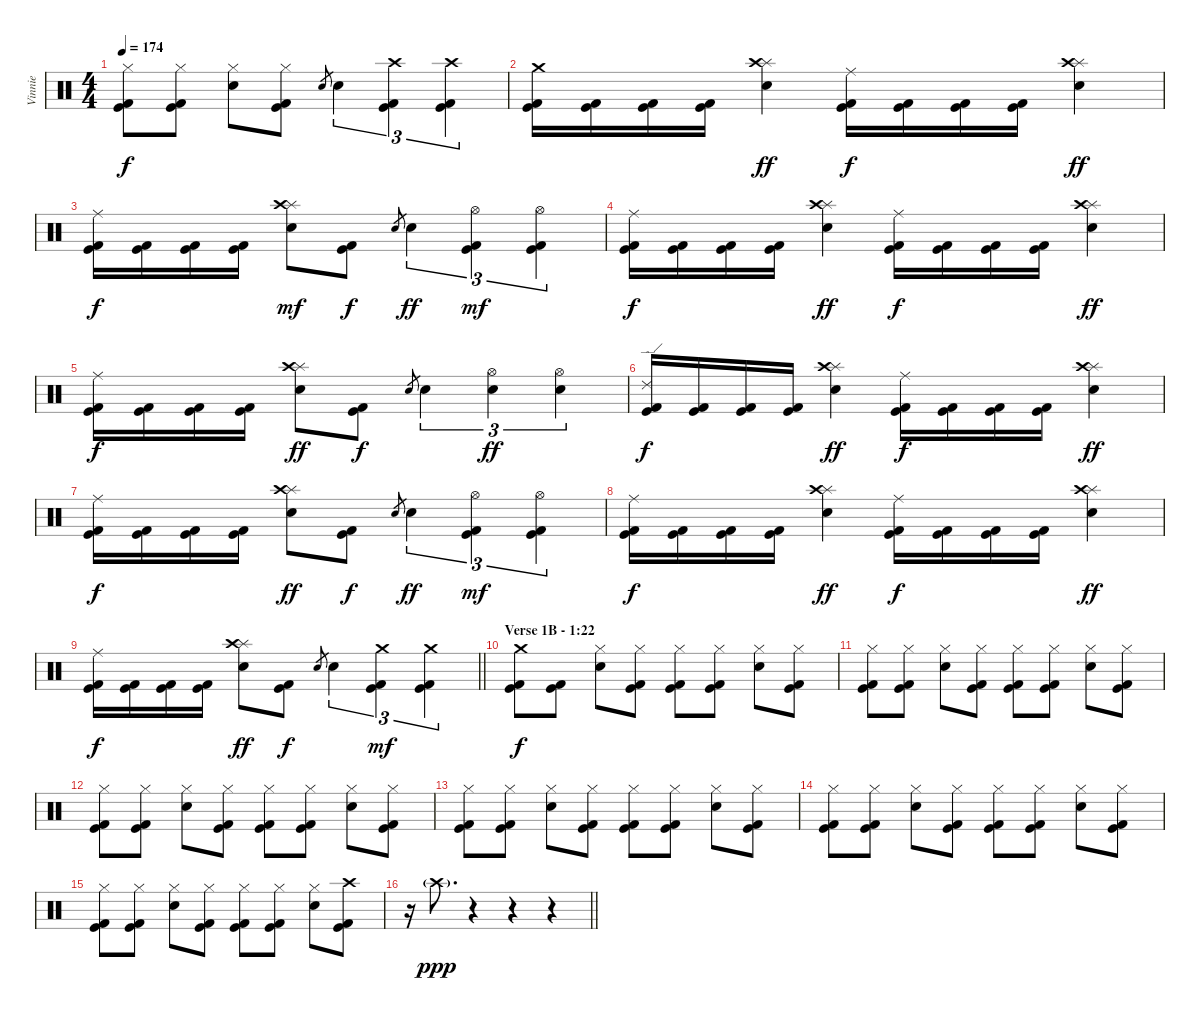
\track ("Vinnie" "Vinnie") {instrument percussion}
\staff {score}
\articulation defaults
\ts (4 4)
\tempo 174
\clef neutral
\ks c
("Hi-Hat (closed)" "Kick (hit)" "Kick (hit) 2").8{dy f} ("Hi-Hat (closed)" "Kick (hit)" "Kick (hit) 2").8 ("Hi-Hat (closed)" "Electric Snare (hit)").8 ("Hi-Hat (closed)" "Kick (hit)" "Kick (hit) 2").8 "Electric Snare (hit)".8{gr} "Electric Snare (hit)".4{tu (3 2)} ("Crash high (hit)" "Kick (hit)" "Kick (hit) 2").4{tu (3 2)} ("Crash high (hit)" "Kick (hit)" "Kick (hit) 2").4{tu (3 2)} |
("Crash medium (hit)" "Kick (hit)" "Kick (hit) 2").16 ("Kick (hit)" "Kick (hit) 2").16 ("Kick (hit)" "Kick (hit) 2").16 ("Kick (hit)" "Kick (hit) 2").16 ("Splash (hit)" "Crash high (hit)" "Electric Snare (hit)").4{dy ff} ("Ride (middle)" "Kick (hit)" "Kick (hit) 2").16{dy f} ("Kick (hit)" "Kick (hit) 2").16 ("Kick (hit)" "Kick (hit) 2").16 ("Kick (hit)" "Kick (hit) 2").16 ("Splash (hit)" "Crash high (hit)" "Electric Snare (hit)").4{dy ff} |
("Ride (middle)" "Kick (hit)" "Kick (hit) 2").16{dy f} ("Kick (hit)" "Kick (hit) 2").16 ("Kick (hit)" "Kick (hit) 2").16 ("Kick (hit)" "Kick (hit) 2").16 ("Splash (hit)" "Crash high (hit)" "Electric Snare (hit)").8{dy mf} ("Kick (hit)" "Kick (hit) 2").8{dy f} "Electric Snare (hit)".8{gr} "Electric Snare (hit)".4{tu (3 2) dy ff} ("Hi-Hat (open)" "Kick (hit)" "Kick (hit) 2").4{tu (3 2) dy mf} ("Hi-Hat (open)" "Kick (hit)" "Kick (hit) 2").4{tu (3 2)} |
("Ride (middle)" "Kick (hit)" "Kick (hit) 2").16{dy f} ("Kick (hit)" "Kick (hit) 2").16 ("Kick (hit)" "Kick (hit) 2").16 ("Kick (hit)" "Kick (hit) 2").16 ("Splash (hit)" "Crash high (hit)" "Electric Snare (hit)").4{dy ff} ("Ride (middle)" "Kick (hit)" "Kick (hit) 2").16{dy f} ("Kick (hit)" "Kick (hit) 2").16 ("Kick (hit)" "Kick (hit) 2").16 ("Kick (hit)" "Kick (hit) 2").16 ("Splash (hit)" "Crash high (hit)" "Electric Snare (hit)").4{dy ff} |
("Ride (middle)" "Kick (hit)" "Kick (hit) 2").16{dy f} ("Kick (hit)" "Kick (hit) 2").16 ("Kick (hit)" "Kick (hit) 2").16 ("Kick (hit)" "Kick (hit) 2").16 ("Splash (hit)" "Crash high (hit)" "Electric Snare (hit)").8{dy ff} ("Kick (hit)" "Kick (hit) 2").8{dy f} "Electric Snare (hit)".8{gr} "Electric Snare (hit)".4{tu (3 2)} ("Hi-Hat (open)" "Electric Snare (hit)").4{tu (3 2) dy ff} ("Hi-Hat (open)" "Electric Snare (hit)").4{tu (3 2)} |
("Ride (edge) 2" "Kick (hit)" "Kick (hit) 2").16{dy f} ("Kick (hit)" "Kick (hit) 2").16 ("Kick (hit)" "Kick (hit) 2").16 ("Kick (hit)" "Kick (hit) 2").16 ("Splash (hit)" "Crash high (hit)" "Electric Snare (hit)").4{dy ff} ("Ride (middle)" "Kick (hit)" "Kick (hit) 2").16{dy f} ("Kick (hit)" "Kick (hit) 2").16 ("Kick (hit)" "Kick (hit) 2").16 ("Kick (hit)" "Kick (hit) 2").16 ("Splash (hit)" "Crash high (hit)" "Electric Snare (hit)").4{dy ff} |
("Ride (middle)" "Kick (hit)" "Kick (hit) 2").16{dy f} ("Kick (hit)" "Kick (hit) 2").16 ("Kick (hit)" "Kick (hit) 2").16 ("Kick (hit)" "Kick (hit) 2").16 ("Splash (hit)" "Crash high (hit)" "Electric Snare (hit)").8{dy ff} ("Kick (hit)" "Kick (hit) 2").8{dy f} "Electric Snare (hit)".8{gr} "Electric Snare (hit)".4{tu (3 2) dy ff} ("Hi-Hat (open)" "Kick (hit)" "Kick (hit) 2").4{tu (3 2) dy mf} ("Hi-Hat (open)" "Kick (hit)" "Kick (hit) 2").4{tu (3 2)} |
("Ride (middle)" "Kick (hit)" "Kick (hit) 2").16{dy f} ("Kick (hit)" "Kick (hit) 2").16 ("Kick (hit)" "Kick (hit) 2").16 ("Kick (hit)" "Kick (hit) 2").16 ("Splash (hit)" "Crash high (hit)" "Electric Snare (hit)").4{dy ff} ("Ride (middle)" "Kick (hit)" "Kick (hit) 2").16{dy f} ("Kick (hit)" "Kick (hit) 2").16 ("Kick (hit)" "Kick (hit) 2").16 ("Kick (hit)" "Kick (hit) 2").16 ("Splash (hit)" "Crash high (hit)" "Electric Snare (hit)").4{dy ff} |
\barLineRight lightlight
("Ride (middle)" "Kick (hit)" "Kick (hit) 2").16{dy f} ("Kick (hit)" "Kick (hit) 2").16 ("Kick (hit)" "Kick (hit) 2").16 ("Kick (hit)" "Kick (hit) 2").16 ("Splash (hit)" "Crash high (hit)" "Electric Snare (hit)").8{dy ff} ("Kick (hit)" "Kick (hit) 2").8{dy f} "Electric Snare (hit)".8{gr} "Electric Snare (hit)".4{tu (3 2)} ("Crash medium (hit)" "Kick (hit)" "Kick (hit) 2").4{tu (3 2) dy mf} ("Crash medium (hit)" "Kick (hit)" "Kick (hit) 2").4{tu (3 2)} |
\section ("" "Verse 1B - 1:22")
("Crash medium (hit)" "Kick (hit)" "Kick (hit) 2").8{dy f} ("Kick (hit)" "Kick (hit) 2").8 ("Hi-Hat (closed)" "Electric Snare (hit)").8 ("Hi-Hat (closed)" "Kick (hit)" "Kick (hit) 2").8 ("Hi-Hat (closed)" "Kick (hit)" "Kick (hit) 2").8 ("Hi-Hat (closed)" "Kick (hit)" "Kick (hit) 2").8 ("Hi-Hat (closed)" "Electric Snare (hit)").8 ("Hi-Hat (closed)" "Kick (hit)" "Kick (hit) 2").8 |
("Hi-Hat (closed)" "Kick (hit)" "Kick (hit) 2").8 ("Hi-Hat (closed)" "Kick (hit)" "Kick (hit) 2").8 ("Hi-Hat (closed)" "Electric Snare (hit)").8 ("Hi-Hat (closed)" "Kick (hit)" "Kick (hit) 2").8 ("Hi-Hat (closed)" "Kick (hit)" "Kick (hit) 2").8 ("Hi-Hat (closed)" "Kick (hit)" "Kick (hit) 2").8 ("Hi-Hat (closed)" "Electric Snare (hit)").8 ("Hi-Hat (closed)" "Kick (hit)" "Kick (hit) 2").8 |
("Hi-Hat (closed)" "Kick (hit)" "Kick (hit) 2").8 ("Hi-Hat (closed)" "Kick (hit)" "Kick (hit) 2").8 ("Hi-Hat (closed)" "Electric Snare (hit)").8 ("Hi-Hat (closed)" "Kick (hit)" "Kick (hit) 2").8 ("Hi-Hat (closed)" "Kick (hit)" "Kick (hit) 2").8 ("Hi-Hat (closed)" "Kick (hit)" "Kick (hit) 2").8 ("Hi-Hat (closed)" "Electric Snare (hit)").8 ("Hi-Hat (closed)" "Kick (hit)" "Kick (hit) 2").8 |
("Hi-Hat (closed)" "Kick (hit)" "Kick (hit) 2").8 ("Hi-Hat (closed)" "Kick (hit)" "Kick (hit) 2").8 ("Hi-Hat (closed)" "Electric Snare (hit)").8 ("Hi-Hat (closed)" "Kick (hit)" "Kick (hit) 2").8 ("Hi-Hat (closed)" "Kick (hit)" "Kick (hit) 2").8 ("Hi-Hat (closed)" "Kick (hit)" "Kick (hit) 2").8 ("Hi-Hat (closed)" "Electric Snare (hit)").8 ("Hi-Hat (closed)" "Kick (hit)" "Kick (hit) 2").8 |
("Hi-Hat (closed)" "Kick (hit)" "Kick (hit) 2").8 ("Hi-Hat (closed)" "Kick (hit)" "Kick (hit) 2").8 ("Hi-Hat (closed)" "Electric Snare (hit)").8 ("Hi-Hat (closed)" "Kick (hit)" "Kick (hit) 2").8 ("Hi-Hat (closed)" "Kick (hit)" "Kick (hit) 2").8 ("Hi-Hat (closed)" "Kick (hit)" "Kick (hit) 2").8 ("Hi-Hat (closed)" "Electric Snare (hit)").8 ("Hi-Hat (closed)" "Kick (hit)" "Kick (hit) 2").8 |
("Hi-Hat (closed)" "Kick (hit)" "Kick (hit) 2").8 ("Hi-Hat (closed)" "Kick (hit)" "Kick (hit) 2").8 ("Hi-Hat (closed)" "Electric Snare (hit)").8 ("Hi-Hat (closed)" "Kick (hit)" "Kick (hit) 2").8 ("Hi-Hat (closed)" "Kick (hit)" "Kick (hit) 2").8 ("Hi-Hat (closed)" "Kick (hit)" "Kick (hit) 2").8 ("Hi-Hat (closed)" "Electric Snare (hit)").8 ("Crash high (hit)" "Kick (hit)" "Kick (hit) 2").8 |
\barLineRight lightlight
r.16 "Crash high (hit)"{g}.8{d dy ppp} r.4 r.4 r.4{volume 16}
